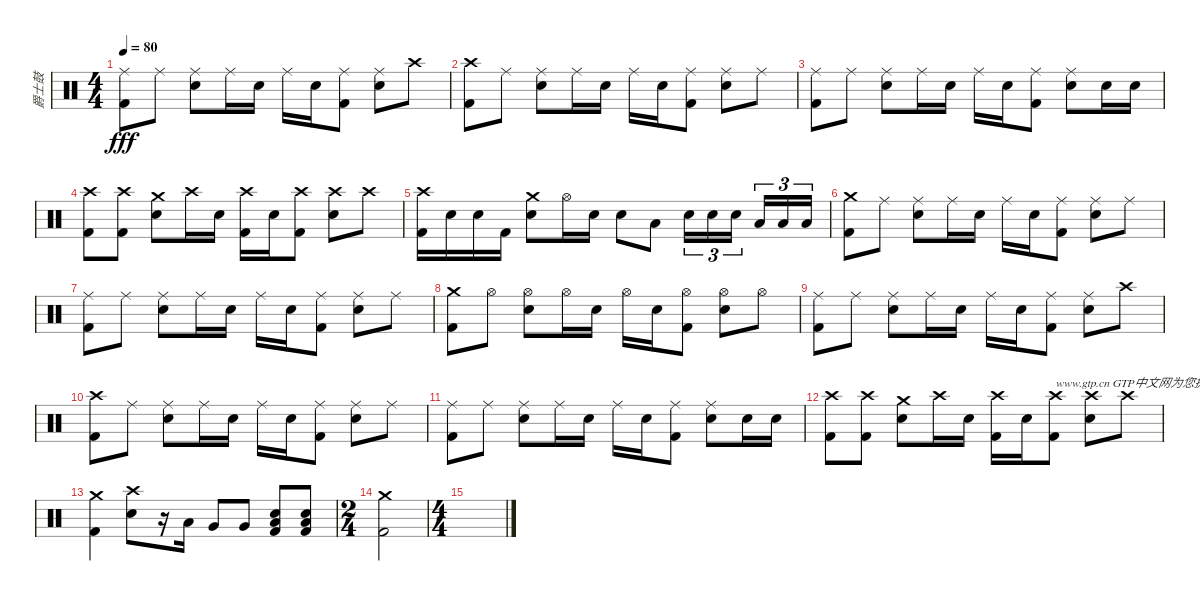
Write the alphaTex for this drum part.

\track ("爵士鼓" "爵士鼓") {instrument percussion}
\staff {score}
\articulation defaults
\ts (4 4)
\tempo 80
\clef neutral
\ks c
("Ride (middle)" "Kick (hit) 2").8{dy fff} "Ride (middle)".8 ("Ride (middle)" "Electric Snare (hit)").8 "Ride (middle)".16 "Electric Snare (hit)".16 "Ride (middle)".16 "Electric Snare (hit)".16 ("Ride (middle)" "Kick (hit) 2").8 ("Ride (middle)" "Electric Snare (hit)").8 "Crash high (hit)".8 |
("Crash high (hit)" "Kick (hit) 2").8 "Ride (middle)".8 ("Ride (middle)" "Electric Snare (hit)").8 "Ride (middle)".16 "Electric Snare (hit)".16 "Ride (middle)".16 "Electric Snare (hit)".16 ("Ride (middle)" "Kick (hit) 2").8 ("Ride (middle)" "Electric Snare (hit)").8 "Ride (middle)".8 |
("Ride (middle)" "Kick (hit) 2").8 "Ride (middle)".8 ("Ride (middle)" "Electric Snare (hit)").8 "Ride (middle)".16 "Electric Snare (hit)".16 "Ride (middle)".16 "Electric Snare (hit)".16 ("Ride (middle)" "Kick (hit) 2").8 ("Ride (middle)" "Electric Snare (hit)").8 "Electric Snare (hit)".16 "Electric Snare (hit)".16 |
("Crash high (hit)" "Kick (hit) 2").8 ("Crash high (hit)" "Kick (hit) 2").8 ("Crash medium (hit)" "Electric Snare (hit)").8 "Crash high (hit)".16 "Electric Snare (hit)".16 ("Crash high (hit)" "Kick (hit) 2").16 "Electric Snare (hit)".16 ("Crash high (hit)" "Kick (hit) 2").8 ("Crash high (hit)" "Electric Snare (hit)").8 "Crash high (hit)".8 |
("Crash high (hit)" "Kick (hit) 2").16 "Electric Snare (hit)".16 "Electric Snare (hit)".16 "Kick (hit) 2".16 ("Crash medium (hit)" "Electric Snare (hit)").8 "Hi-Hat (open)".16 "Electric Snare (hit)".16 "Electric Snare (hit)".8 "Low Tom (hit)".8 "Electric Snare (hit)".16{tu (3 2)} "Electric Snare (hit)".16{tu (3 2)} "Electric Snare (hit)".16{tu (3 2) beam splitsecondary} "Low Tom (hit)".16{tu (3 2)} "Low Tom (hit)".16{tu (3 2)} "Low Tom (hit)".16{tu (3 2)} |
("Crash medium (hit)" "Kick (hit) 2").8 "Ride (middle)".8 ("Ride (middle)" "Electric Snare (hit)").8 "Ride (middle)".16 "Electric Snare (hit)".16 "Ride (middle)".16 "Electric Snare (hit)".16 ("Ride (middle)" "Kick (hit) 2").8 ("Ride (middle)" "Electric Snare (hit)").8 "Ride (middle)".8 |
("Ride (middle)" "Kick (hit) 2").8 "Ride (middle)".8 ("Ride (middle)" "Electric Snare (hit)").8 "Ride (middle)".16 "Electric Snare (hit)".16 "Ride (middle)".16 "Electric Snare (hit)".16 ("Ride (middle)" "Kick (hit) 2").8 ("Ride (middle)" "Electric Snare (hit)").8 "Ride (middle)".8 |
("Crash medium (hit)" "Kick (hit) 2").8 "Hi-Hat (open)".8 ("Hi-Hat (open)" "Electric Snare (hit)").8 "Hi-Hat (open)".16 "Electric Snare (hit)".16 "Hi-Hat (open)".16 "Electric Snare (hit)".16 ("Hi-Hat (open)" "Kick (hit) 2").8 ("Hi-Hat (open)" "Electric Snare (hit)").8 "Hi-Hat (open)".8 |
("Ride (middle)" "Kick (hit) 2").8 "Ride (middle)".8 ("Ride (middle)" "Electric Snare (hit)").8 "Ride (middle)".16 "Electric Snare (hit)".16 "Ride (middle)".16 "Electric Snare (hit)".16 ("Ride (middle)" "Kick (hit) 2").8 ("Ride (middle)" "Electric Snare (hit)").8 "Crash high (hit)".8 |
("Crash high (hit)" "Kick (hit) 2").8 "Ride (middle)".8 ("Ride (middle)" "Electric Snare (hit)").8 "Ride (middle)".16 "Electric Snare (hit)".16 "Ride (middle)".16 "Electric Snare (hit)".16 ("Ride (middle)" "Kick (hit) 2").8 ("Ride (middle)" "Electric Snare (hit)").8 "Ride (middle)".8 |
("Ride (middle)" "Kick (hit) 2").8 "Ride (middle)".8 ("Ride (middle)" "Electric Snare (hit)").8 "Ride (middle)".16 "Electric Snare (hit)".16 "Ride (middle)".16 "Electric Snare (hit)".16 ("Ride (middle)" "Kick (hit) 2").8 ("Ride (middle)" "Electric Snare (hit)").8 "Electric Snare (hit)".16 "Electric Snare (hit)".16 |
("Crash high (hit)" "Kick (hit) 2").8 ("Crash high (hit)" "Kick (hit) 2").8 ("Crash medium (hit)" "Electric Snare (hit)").8 "Crash high (hit)".16 "Electric Snare (hit)".16 ("Crash high (hit)" "Kick (hit) 2").16 "Electric Snare (hit)".16 ("Crash high (hit)" "Kick (hit) 2").8{txt "www.gtp.cn GTP中文网为您提供优秀的谱子"} ("Crash high (hit)" "Electric Snare (hit)").8 "Crash high (hit)".8 |
("Crash medium (hit)" "Kick (hit) 2").4 ("Crash high (hit)" "Electric Snare (hit)").8 r.16 "Low Tom (hit)".16 "Very Low Tom (hit)".8 "Very Low Tom (hit)".8 ("Electric Snare (hit)" "Low Floor Tom (hit)" "Kick (hit) 2").8 ("Electric Snare (hit)" "Low Floor Tom (hit)" "Kick (hit) 2").8 |
\ts (2 4)
("Crash medium (hit)" "Kick (hit) 2").2 |
\ts (4 4)
